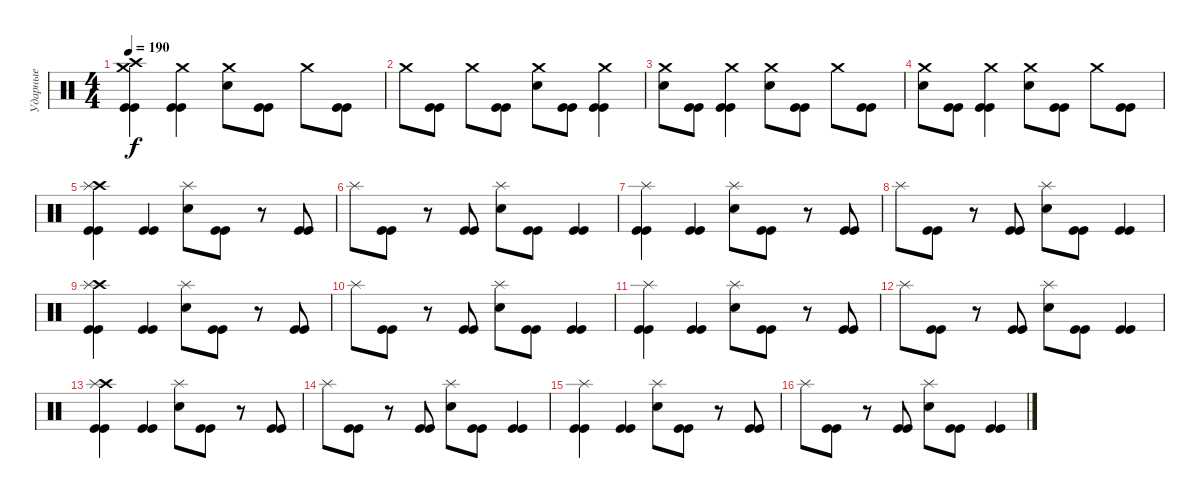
\track ("Ударные" "Ударные") {instrument percussion}
\staff {score}
\articulation defaults
\ts (4 4)
\tempo 190
\clef neutral
\ks c
("Crash high (hit)" "Crash medium (hit)" "Kick (hit)" "Kick (hit)").4{dy f} ("Crash medium (hit)" "Kick (hit)" "Kick (hit)").4 ("Crash medium (hit)" "Electric Snare (hit)").8 ("Kick (hit)" "Kick (hit)").8 "Crash medium (hit)".8 ("Kick (hit)" "Kick (hit)").8 |
"Crash medium (hit)".8 ("Kick (hit)" "Kick (hit)").8 "Crash medium (hit)".8 ("Kick (hit)" "Kick (hit)").8 ("Crash medium (hit)" "Electric Snare (hit)").8 ("Kick (hit)" "Kick (hit)").8 ("Crash medium (hit)" "Kick (hit)" "Kick (hit)").4 |
("Crash medium (hit)" "Electric Snare (hit)").8 ("Kick (hit)" "Kick (hit)").8 ("Crash medium (hit)" "Kick (hit)" "Kick (hit)").4 ("Crash medium (hit)" "Electric Snare (hit)").8 ("Kick (hit)" "Kick (hit)").8 "Crash medium (hit)".8 ("Kick (hit)" "Kick (hit)").8 |
("Crash medium (hit)" "Electric Snare (hit)").8 ("Kick (hit)" "Kick (hit)").8 ("Crash medium (hit)" "Kick (hit)" "Kick (hit)").4 ("Crash medium (hit)" "Electric Snare (hit)").8 ("Kick (hit)" "Kick (hit)").8 "Crash medium (hit)".8 ("Kick (hit)" "Kick (hit)").8 |
("Crash high (hit)" "Splash (hit)" "Kick (hit)" "Kick (hit)").4 ("Kick (hit)" "Kick (hit)").4 ("Splash (hit)" "Electric Snare (hit)").8 ("Kick (hit)" "Kick (hit)").8 r.8 ("Kick (hit)" "Kick (hit)").8 |
"Splash (hit)".8 ("Kick (hit)" "Kick (hit)").8 r.8 ("Kick (hit)" "Kick (hit)").8 ("Splash (hit)" "Electric Snare (hit)").8 ("Kick (hit)" "Kick (hit)").8 ("Kick (hit)" "Kick (hit)").4 |
("Splash (hit)" "Kick (hit)" "Kick (hit)").4 ("Kick (hit)" "Kick (hit)").4 ("Splash (hit)" "Electric Snare (hit)").8 ("Kick (hit)" "Kick (hit)").8 r.8 ("Kick (hit)" "Kick (hit)").8 |
"Splash (hit)".8 ("Kick (hit)" "Kick (hit)").8 r.8 ("Kick (hit)" "Kick (hit)").8 ("Splash (hit)" "Electric Snare (hit)").8 ("Kick (hit)" "Kick (hit)").8 ("Kick (hit)" "Kick (hit)").4 |
("Crash high (hit)" "Splash (hit)" "Kick (hit)" "Kick (hit)").4 ("Kick (hit)" "Kick (hit)").4 ("Splash (hit)" "Electric Snare (hit)").8 ("Kick (hit)" "Kick (hit)").8 r.8 ("Kick (hit)" "Kick (hit)").8 |
"Splash (hit)".8 ("Kick (hit)" "Kick (hit)").8 r.8 ("Kick (hit)" "Kick (hit)").8 ("Splash (hit)" "Electric Snare (hit)").8 ("Kick (hit)" "Kick (hit)").8 ("Kick (hit)" "Kick (hit)").4 |
("Splash (hit)" "Kick (hit)" "Kick (hit)").4 ("Kick (hit)" "Kick (hit)").4 ("Splash (hit)" "Electric Snare (hit)").8 ("Kick (hit)" "Kick (hit)").8 r.8 ("Kick (hit)" "Kick (hit)").8 |
"Splash (hit)".8 ("Kick (hit)" "Kick (hit)").8 r.8 ("Kick (hit)" "Kick (hit)").8 ("Splash (hit)" "Electric Snare (hit)").8 ("Kick (hit)" "Kick (hit)").8 ("Kick (hit)" "Kick (hit)").4 |
("Crash high (hit)" "Splash (hit)" "Kick (hit)" "Kick (hit)").4 ("Kick (hit)" "Kick (hit)").4 ("Splash (hit)" "Electric Snare (hit)").8 ("Kick (hit)" "Kick (hit)").8 r.8 ("Kick (hit)" "Kick (hit)").8 |
"Splash (hit)".8 ("Kick (hit)" "Kick (hit)").8 r.8 ("Kick (hit)" "Kick (hit)").8 ("Splash (hit)" "Electric Snare (hit)").8 ("Kick (hit)" "Kick (hit)").8 ("Kick (hit)" "Kick (hit)").4 |
("Splash (hit)" "Kick (hit)" "Kick (hit)").4 ("Kick (hit)" "Kick (hit)").4 ("Splash (hit)" "Electric Snare (hit)").8 ("Kick (hit)" "Kick (hit)").8 r.8 ("Kick (hit)" "Kick (hit)").8 |
"Splash (hit)".8 ("Kick (hit)" "Kick (hit)").8 r.8 ("Kick (hit)" "Kick (hit)").8 ("Splash (hit)" "Electric Snare (hit)").8 ("Kick (hit)" "Kick (hit)").8 ("Kick (hit)" "Kick (hit)").4
